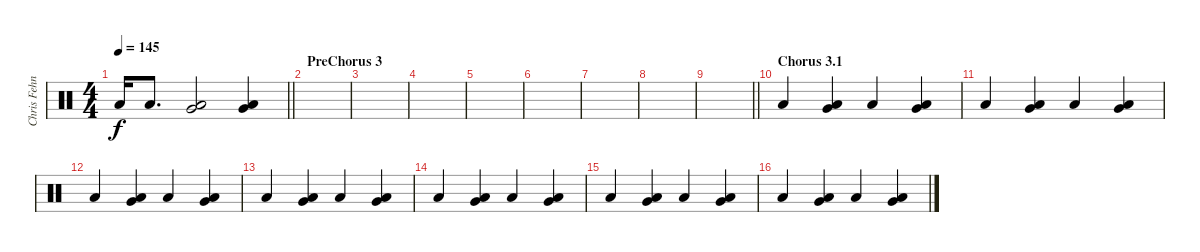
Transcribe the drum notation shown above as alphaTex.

\track ("Chris Fehn" "Chris Fehn") {instrument percussion}
\staff {score}
\articulation defaults
\ts (4 4)
\tempo 145
\clef neutral
\barLineRight lightlight
\ks c "Low Floor Tom (hit)".16{dy f} "Low Floor Tom (hit)".8{d}
("Very Low Tom (hit)" "Low Floor Tom (hit)").2 ("Very Low Tom (hit)" "Low Floor Tom (hit)").4 |
\section ("" "PreChorus 3")
|
|
|
|
|
|
|
\barLineRight lightlight
|
\section ("" "Chorus 3.1")
"Low Floor Tom (hit)".4 ("Very Low Tom (hit)" "Low Floor Tom (hit)").4 "Low Floor Tom (hit)".4 ("Very Low Tom (hit)" "Low Floor Tom (hit)").4 |
"Low Floor Tom (hit)".4 ("Very Low Tom (hit)" "Low Floor Tom (hit)").4 "Low Floor Tom (hit)".4 ("Very Low Tom (hit)" "Low Floor Tom (hit)").4 |
"Low Floor Tom (hit)".4 ("Very Low Tom (hit)" "Low Floor Tom (hit)").4 "Low Floor Tom (hit)".4 ("Very Low Tom (hit)" "Low Floor Tom (hit)").4 |
"Low Floor Tom (hit)".4 ("Very Low Tom (hit)" "Low Floor Tom (hit)").4 "Low Floor Tom (hit)".4 ("Very Low Tom (hit)" "Low Floor Tom (hit)").4 |
"Low Floor Tom (hit)".4 ("Very Low Tom (hit)" "Low Floor Tom (hit)").4 "Low Floor Tom (hit)".4 ("Very Low Tom (hit)" "Low Floor Tom (hit)").4 |
"Low Floor Tom (hit)".4 ("Very Low Tom (hit)" "Low Floor Tom (hit)").4 "Low Floor Tom (hit)".4 ("Very Low Tom (hit)" "Low Floor Tom (hit)").4 |
"Low Floor Tom (hit)".4 ("Very Low Tom (hit)" "Low Floor Tom (hit)").4 "Low Floor Tom (hit)".4 ("Very Low Tom (hit)" "Low Floor Tom (hit)").4
